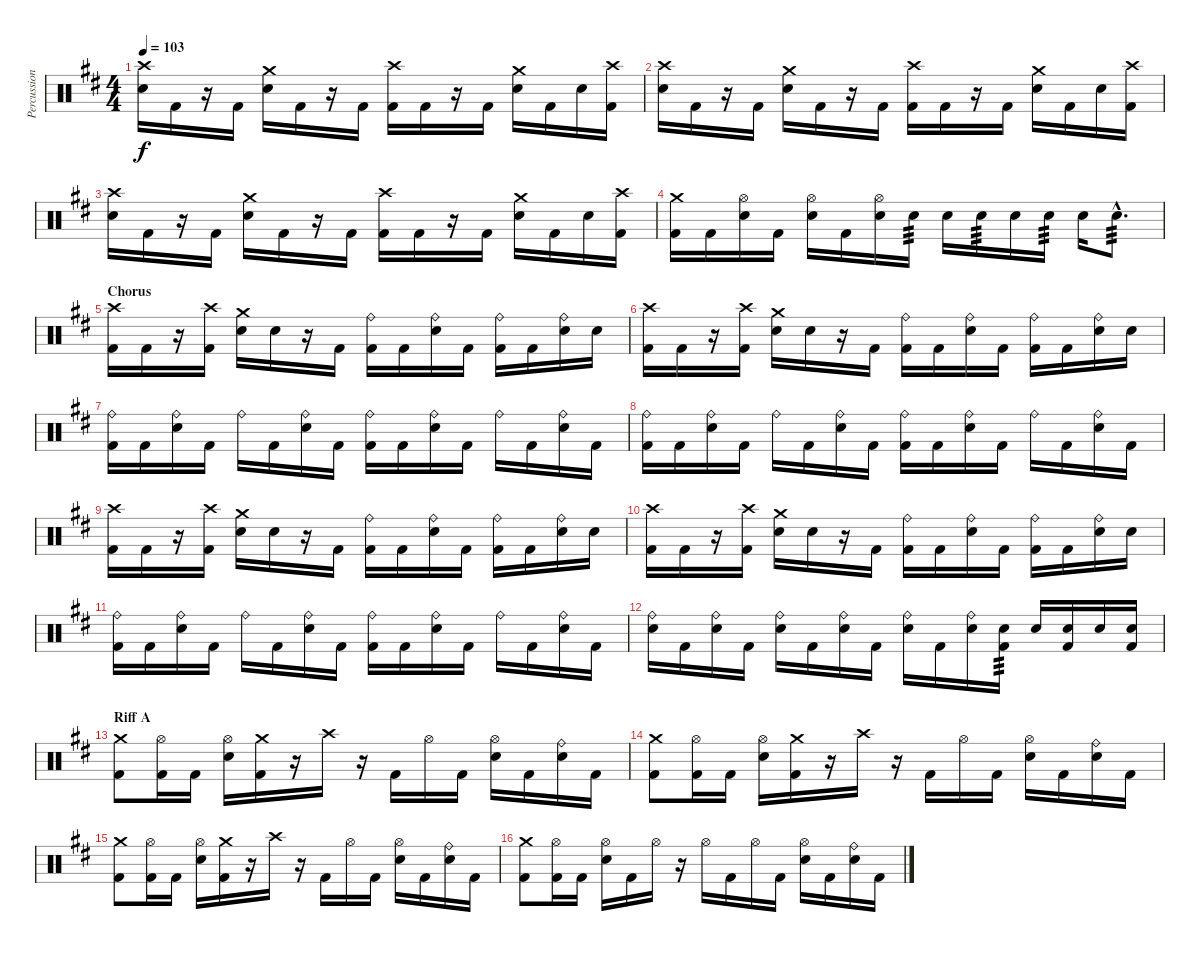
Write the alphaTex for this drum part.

\track ("Percussion" "Percussion") {instrument percussion}
\staff {score}
\articulation defaults
\ts (4 4)
\tempo 103
\clef neutral
\ks d
("Crash high (hit)" "Snare (hit) 2").16{dy f} "Kick (hit) 2".16 r.16 "Kick (hit) 2".16 ("Crash medium (hit)" "Snare (hit) 2").16 "Kick (hit) 2".16 r.16 "Kick (hit) 2".16 ("Crash high (hit)" "Kick (hit) 2").16 "Kick (hit) 2".16 r.16 "Kick (hit) 2".16 ("Crash medium (hit)" "Snare (hit) 2").16 "Kick (hit) 2".16 "Snare (hit) 2".16 ("Crash high (hit)" "Kick (hit) 2").16 |
("Crash high (hit)" "Snare (hit) 2").16 "Kick (hit) 2".16 r.16 "Kick (hit) 2".16 ("Crash medium (hit)" "Snare (hit) 2").16 "Kick (hit) 2".16 r.16 "Kick (hit) 2".16 ("Crash high (hit)" "Kick (hit) 2").16 "Kick (hit) 2".16 r.16 "Kick (hit) 2".16 ("Crash medium (hit)" "Snare (hit) 2").16 "Kick (hit) 2".16 "Snare (hit) 2".16 ("Crash high (hit)" "Kick (hit) 2").16 |
("Crash high (hit)" "Snare (hit) 2").16 "Kick (hit) 2".16 r.16 "Kick (hit) 2".16 ("Crash medium (hit)" "Snare (hit) 2").16 "Kick (hit) 2".16 r.16 "Kick (hit) 2".16 ("Crash high (hit)" "Kick (hit) 2").16 "Kick (hit) 2".16 r.16 "Kick (hit) 2".16 ("Crash medium (hit)" "Snare (hit) 2").16 "Kick (hit) 2".16 "Snare (hit) 2".16 ("Crash high (hit)" "Kick (hit) 2").16 |
("Crash medium (hit)" "Kick (hit) 2").16 "Kick (hit) 2".16 ("Hi-Hat (open)" "Snare (hit) 2").16 "Kick (hit) 2".16 ("Hi-Hat (open)" "Snare (hit) 2").16 "Kick (hit) 2".16 ("Hi-Hat (open)" "Snare (hit) 2").16 "Snare (hit) 2".16{tp 3} "Snare (hit) 2".16 "Snare (hit) 2".16{tp 3} "Snare (hit) 2".16 "Snare (hit) 2".16{tp 3} "Snare (hit) 2".16 "Snare (hit) 2"{hac}.8{d tp 3} |
\section ("" "Chorus")
("Crash high (hit)" "Kick (hit) 2").16 "Kick (hit) 2".16 r.16 ("Crash high (hit)" "Kick (hit) 2").16 ("Crash medium (hit)" "Snare (hit) 2").16 "Snare (hit) 2".16 r.16 "Kick (hit) 2".16 ("Ride (bell)" "Kick (hit) 2").16 "Kick (hit) 2".16 ("Ride (bell)" "Snare (hit) 2").16 "Kick (hit) 2".16 ("Ride (bell)" "Kick (hit) 2").16 "Kick (hit) 2".16 ("Ride (bell)" "Snare (hit) 2").16 "Snare (hit) 2".16 |
("Crash high (hit)" "Kick (hit) 2").16 "Kick (hit) 2".16 r.16 ("Crash high (hit)" "Kick (hit) 2").16 ("Crash medium (hit)" "Snare (hit) 2").16 "Snare (hit) 2".16 r.16 "Kick (hit) 2".16 ("Ride (bell)" "Kick (hit) 2").16 "Kick (hit) 2".16 ("Ride (bell)" "Snare (hit) 2").16 "Kick (hit) 2".16 ("Ride (bell)" "Kick (hit) 2").16 "Kick (hit) 2".16 ("Ride (bell)" "Snare (hit) 2").16 "Snare (hit) 2".16 |
("Ride (bell)" "Kick (hit) 2").16 "Kick (hit) 2".16 ("Ride (bell)" "Snare (hit) 2").16 "Kick (hit) 2".16 "Ride (bell)".16 "Kick (hit) 2".16 ("Ride (bell)" "Snare (hit) 2").16 "Kick (hit) 2".16 ("Ride (bell)" "Kick (hit) 2").16 "Kick (hit) 2".16 ("Ride (bell)" "Snare (hit) 2").16 "Kick (hit) 2".16 "Ride (bell)".16 "Kick (hit) 2".16 ("Ride (bell)" "Snare (hit) 2").16 "Kick (hit) 2".16 |
("Ride (bell)" "Kick (hit) 2").16 "Kick (hit) 2".16 ("Ride (bell)" "Snare (hit) 2").16 "Kick (hit) 2".16 "Ride (bell)".16 "Kick (hit) 2".16 ("Ride (bell)" "Snare (hit) 2").16 "Kick (hit) 2".16 ("Ride (bell)" "Kick (hit) 2").16 "Kick (hit) 2".16 ("Ride (bell)" "Snare (hit) 2").16 "Kick (hit) 2".16 "Ride (bell)".16 "Kick (hit) 2".16 ("Ride (bell)" "Snare (hit) 2").16 "Kick (hit) 2".16 |
("Crash high (hit)" "Kick (hit) 2").16 "Kick (hit) 2".16 r.16 ("Crash high (hit)" "Kick (hit) 2").16 ("Crash medium (hit)" "Snare (hit) 2").16 "Snare (hit) 2".16 r.16 "Kick (hit) 2".16 ("Ride (bell)" "Kick (hit) 2").16 "Kick (hit) 2".16 ("Ride (bell)" "Snare (hit) 2").16 "Kick (hit) 2".16 ("Ride (bell)" "Kick (hit) 2").16 "Kick (hit) 2".16 ("Ride (bell)" "Snare (hit) 2").16 "Snare (hit) 2".16 |
("Crash high (hit)" "Kick (hit) 2").16 "Kick (hit) 2".16 r.16 ("Crash high (hit)" "Kick (hit) 2").16 ("Crash medium (hit)" "Snare (hit) 2").16 "Snare (hit) 2".16 r.16 "Kick (hit) 2".16 ("Ride (bell)" "Kick (hit) 2").16 "Kick (hit) 2".16 ("Ride (bell)" "Snare (hit) 2").16 "Kick (hit) 2".16 ("Ride (bell)" "Kick (hit) 2").16 "Kick (hit) 2".16 ("Ride (bell)" "Snare (hit) 2").16 "Snare (hit) 2".16 |
("Ride (bell)" "Kick (hit) 2").16 "Kick (hit) 2".16 ("Ride (bell)" "Snare (hit) 2").16 "Kick (hit) 2".16 "Ride (bell)".16 "Kick (hit) 2".16 ("Ride (bell)" "Snare (hit) 2").16 "Kick (hit) 2".16 ("Ride (bell)" "Kick (hit) 2").16 "Kick (hit) 2".16 ("Ride (bell)" "Snare (hit) 2").16 "Kick (hit) 2".16 "Ride (bell)".16 "Kick (hit) 2".16 ("Ride (bell)" "Snare (hit) 2").16 "Kick (hit) 2".16 |
("Ride (bell)" "Snare (hit) 2").16 "Kick (hit) 2".16 ("Ride (bell)" "Snare (hit) 2").16 "Kick (hit) 2".16 ("Ride (bell)" "Snare (hit) 2").16 "Kick (hit) 2".16 ("Ride (bell)" "Snare (hit) 2").16 "Kick (hit) 2".16 ("Ride (bell)" "Snare (hit) 2").16 "Kick (hit) 2".16 ("Ride (bell)" "Snare (hit) 2").16 ("Snare (hit) 2" "Kick (hit) 2").16{tp 3} "Snare (hit) 2".16 ("Snare (hit) 2" "Kick (hit) 2").16 "Snare (hit) 2".16 ("Snare (hit) 2" "Kick (hit) 2").16 |
\section ("" "Riff A")
("Crash medium (hit)" "Kick (hit) 2").8 ("Hi-Hat (open)" "Kick (hit) 2").16 "Kick (hit) 2".16 ("Hi-Hat (open)" "Snare (hit) 2").16 ("Crash medium (hit)" "Kick (hit) 2").16 r.16 "Crash high (hit)".16 r.16 "Kick (hit) 2".16 "Hi-Hat (open)".16 "Kick (hit) 2".16 ("Hi-Hat (open)" "Snare (hit) 2").16 "Kick (hit) 2".16 ("Ride (bell)" "Snare (hit) 2").16 "Kick (hit) 2".16 |
("Crash medium (hit)" "Kick (hit) 2").8 ("Hi-Hat (open)" "Kick (hit) 2").16 "Kick (hit) 2".16 ("Hi-Hat (open)" "Snare (hit) 2").16 ("Crash medium (hit)" "Kick (hit) 2").16 r.16 "Crash high (hit)".16 r.16 "Kick (hit) 2".16 "Hi-Hat (open)".16 "Kick (hit) 2".16 ("Hi-Hat (open)" "Snare (hit) 2").16 "Kick (hit) 2".16 ("Ride (bell)" "Snare (hit) 2").16 "Kick (hit) 2".16 |
("Crash medium (hit)" "Kick (hit) 2").8 ("Hi-Hat (open)" "Kick (hit) 2").16 "Kick (hit) 2".16 ("Hi-Hat (open)" "Snare (hit) 2").16 ("Crash medium (hit)" "Kick (hit) 2").16 r.16 "Crash high (hit)".16 r.16 "Kick (hit) 2".16 "Hi-Hat (open)".16 "Kick (hit) 2".16 ("Hi-Hat (open)" "Snare (hit) 2").16 "Kick (hit) 2".16 ("Ride (bell)" "Snare (hit) 2").16 "Kick (hit) 2".16 |
("Crash medium (hit)" "Kick (hit) 2").8 ("Hi-Hat (open)" "Kick (hit) 2").16 "Kick (hit) 2".16 ("Hi-Hat (open)" "Snare (hit) 2").16 "Kick (hit) 2".16 "Hi-Hat (open)".16 r.16 "Hi-Hat (open)".16 "Kick (hit) 2".16 "Hi-Hat (open)".16 "Kick (hit) 2".16 ("Hi-Hat (open)" "Snare (hit) 2").16 "Kick (hit) 2".16 ("Ride (bell)" "Snare (hit) 2").16 "Kick (hit) 2".16
